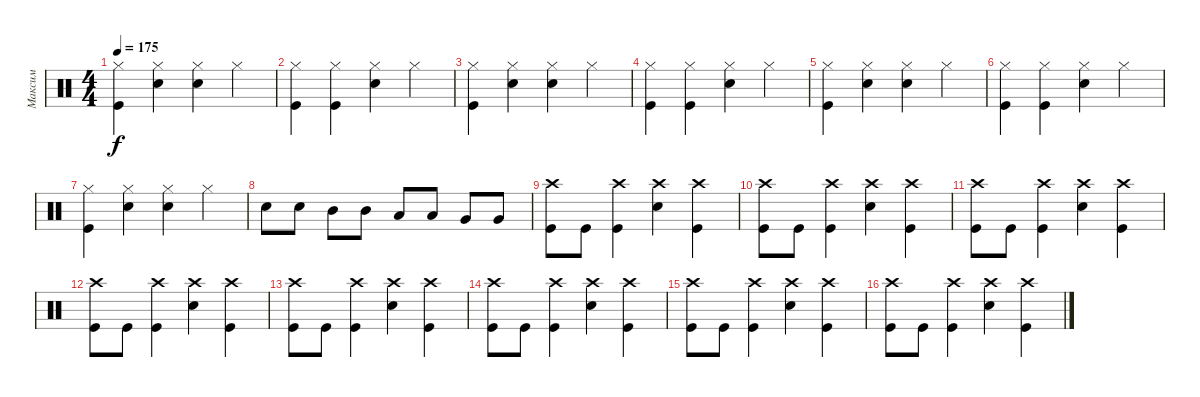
\track ("Максим" "Максим") {instrument percussion}
\staff {score}
\articulation defaults
\ts (4 4)
\tempo 175
\clef neutral
\ks c
("Hi-Hat (closed)" "Kick (hit)").4{dy f} ("Snare (hit)" "Hi-Hat (closed)").4 ("Snare (hit) 2" "Hi-Hat (closed)").4 "Hi-Hat (closed)".4 |
("Kick (hit)" "Hi-Hat (closed)").4 ("Kick (hit)" "Hi-Hat (closed)").4 ("Snare (hit) 2" "Hi-Hat (closed)").4 "Hi-Hat (closed)".4 |
("Hi-Hat (closed)" "Kick (hit)").4 ("Snare (hit)" "Hi-Hat (closed)").4 ("Snare (hit) 2" "Hi-Hat (closed)").4 "Hi-Hat (closed)".4 |
("Kick (hit)" "Hi-Hat (closed)").4 ("Kick (hit)" "Hi-Hat (closed)").4 ("Snare (hit) 2" "Hi-Hat (closed)").4 "Hi-Hat (closed)".4 |
("Hi-Hat (closed)" "Kick (hit)").4 ("Snare (hit)" "Hi-Hat (closed)").4 ("Snare (hit) 2" "Hi-Hat (closed)").4 "Hi-Hat (closed)".4 |
("Kick (hit)" "Hi-Hat (closed)").4 ("Kick (hit)" "Hi-Hat (closed)").4 ("Snare (hit) 2" "Hi-Hat (closed)").4 "Hi-Hat (closed)".4 |
("Hi-Hat (closed)" "Kick (hit)").4 ("Snare (hit)" "Hi-Hat (closed)").4 ("Snare (hit) 2" "Hi-Hat (closed)").4 "Hi-Hat (closed)".4 |
"Snare (hit) 2".8 "Snare (hit) 2".8 "Mid Tom (hit)".8 "Mid Tom (hit)".8 "Low Tom (hit)".8 "Low Tom (hit)".8 "Very Low Tom (hit)".8 "Very Low Tom (hit)".8 |
("Crash high (hit)" "Kick (hit)").8 "Kick (hit)".8 ("Kick (hit)" "Crash high (hit)").4 ("Crash high (hit)" "Snare (hit) 2").4 ("Kick (hit)" "Crash high (hit)").4 |
("Crash high (hit)" "Kick (hit)").8 "Kick (hit)".8 ("Kick (hit)" "Crash high (hit)").4 ("Crash high (hit)" "Snare (hit) 2").4 ("Kick (hit)" "Crash high (hit)").4 |
("Crash high (hit)" "Kick (hit)").8 "Kick (hit)".8 ("Kick (hit)" "Crash high (hit)").4 ("Crash high (hit)" "Snare (hit) 2").4 ("Kick (hit)" "Crash high (hit)").4 |
("Crash high (hit)" "Kick (hit)").8 "Kick (hit)".8 ("Kick (hit)" "Crash high (hit)").4 ("Crash high (hit)" "Snare (hit) 2").4 ("Kick (hit)" "Crash high (hit)").4 |
("Crash high (hit)" "Kick (hit)").8 "Kick (hit)".8 ("Kick (hit)" "Crash high (hit)").4 ("Crash high (hit)" "Snare (hit) 2").4 ("Kick (hit)" "Crash high (hit)").4 |
("Crash high (hit)" "Kick (hit)").8 "Kick (hit)".8 ("Kick (hit)" "Crash high (hit)").4 ("Crash high (hit)" "Snare (hit) 2").4 ("Kick (hit)" "Crash high (hit)").4 |
("Crash high (hit)" "Kick (hit)").8 "Kick (hit)".8 ("Kick (hit)" "Crash high (hit)").4 ("Crash high (hit)" "Snare (hit) 2").4 ("Kick (hit)" "Crash high (hit)").4 |
("Crash high (hit)" "Kick (hit)").8 "Kick (hit)".8 ("Kick (hit)" "Crash high (hit)").4 ("Crash high (hit)" "Snare (hit) 2").4 ("Kick (hit)" "Crash high (hit)").4
